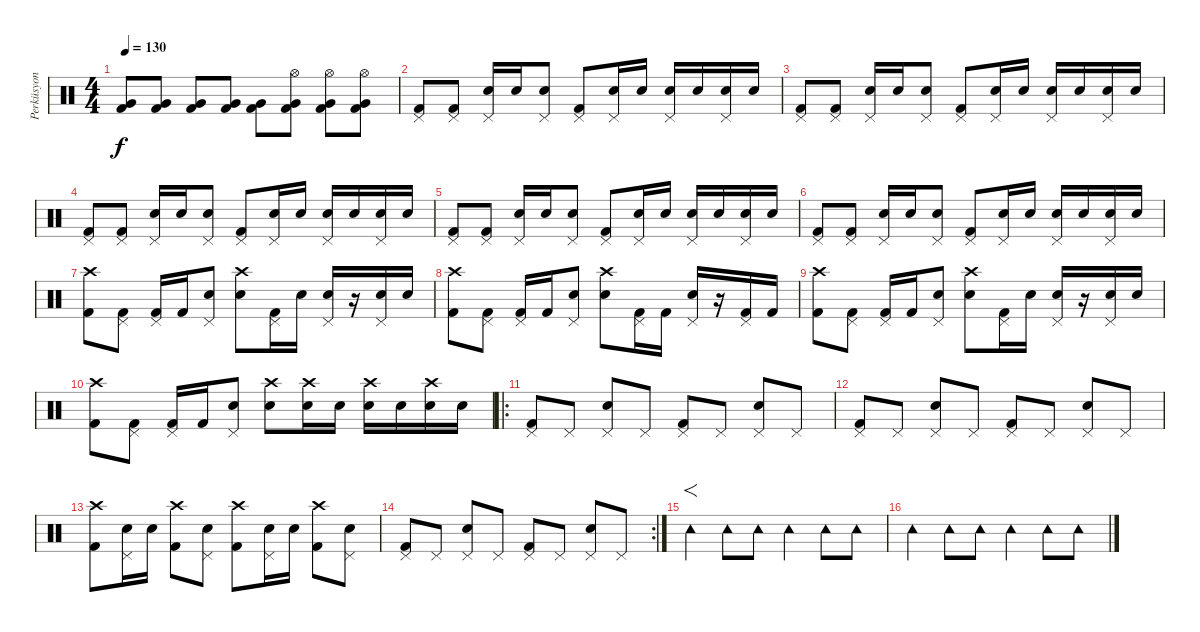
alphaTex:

\track ("Perküsyon" "Perküsyon") {instrument percussion}
\staff {score}
\articulation defaults
\ts (4 4)
\tempo 130
\clef neutral
\ks c
("Kick (hit) 2" "Very Low Tom (hit)").8{dy f} ("Kick (hit) 2" "Very Low Tom (hit)").8 ("Kick (hit) 2" "Very Low Tom (hit)").8 ("Kick (hit) 2" "Very Low Tom (hit)").8 ("Kick (hit) 2" "Very Low Tom (hit)").8 ("Hi-Hat (open)" "Kick (hit) 2" "Very Low Tom (hit)").8 ("Hi-Hat (open)" "Kick (hit) 2" "Very Low Tom (hit)").8 ("Hi-Hat (open)" "Kick (hit) 2" "Very Low Tom (hit)").8 |
("Pedal Hi-Hat (hit)" "Kick (hit) 2").8 ("Pedal Hi-Hat (hit)" "Kick (hit) 2").8 ("Pedal Hi-Hat (hit)" "Electric Snare (hit)").16 "Electric Snare (hit)".16 ("Pedal Hi-Hat (hit)" "Electric Snare (hit)").8 ("Pedal Hi-Hat (hit)" "Kick (hit) 2").8 ("Pedal Hi-Hat (hit)" "Electric Snare (hit)").16 "Electric Snare (hit)".16 ("Pedal Hi-Hat (hit)" "Electric Snare (hit)").16 "Electric Snare (hit)".16 ("Pedal Hi-Hat (hit)" "Electric Snare (hit)").16 "Electric Snare (hit)".16 |
("Pedal Hi-Hat (hit)" "Kick (hit) 2").8 ("Pedal Hi-Hat (hit)" "Kick (hit) 2").8 ("Pedal Hi-Hat (hit)" "Electric Snare (hit)").16 "Electric Snare (hit)".16 ("Pedal Hi-Hat (hit)" "Electric Snare (hit)").8 ("Pedal Hi-Hat (hit)" "Kick (hit) 2").8 ("Pedal Hi-Hat (hit)" "Electric Snare (hit)").16 "Electric Snare (hit)".16 ("Pedal Hi-Hat (hit)" "Electric Snare (hit)").16 "Electric Snare (hit)".16 ("Pedal Hi-Hat (hit)" "Electric Snare (hit)").16 "Electric Snare (hit)".16 |
("Pedal Hi-Hat (hit)" "Kick (hit) 2").8 ("Pedal Hi-Hat (hit)" "Kick (hit) 2").8 ("Pedal Hi-Hat (hit)" "Electric Snare (hit)").16 "Electric Snare (hit)".16 ("Pedal Hi-Hat (hit)" "Electric Snare (hit)").8 ("Pedal Hi-Hat (hit)" "Kick (hit) 2").8 ("Pedal Hi-Hat (hit)" "Electric Snare (hit)").16 "Electric Snare (hit)".16 ("Pedal Hi-Hat (hit)" "Electric Snare (hit)").16 "Electric Snare (hit)".16 ("Pedal Hi-Hat (hit)" "Electric Snare (hit)").16 "Electric Snare (hit)".16 |
("Pedal Hi-Hat (hit)" "Kick (hit) 2").8 ("Pedal Hi-Hat (hit)" "Kick (hit) 2").8 ("Pedal Hi-Hat (hit)" "Electric Snare (hit)").16 "Electric Snare (hit)".16 ("Pedal Hi-Hat (hit)" "Electric Snare (hit)").8 ("Pedal Hi-Hat (hit)" "Kick (hit) 2").8 ("Pedal Hi-Hat (hit)" "Electric Snare (hit)").16 "Electric Snare (hit)".16 ("Pedal Hi-Hat (hit)" "Electric Snare (hit)").16 "Electric Snare (hit)".16 ("Pedal Hi-Hat (hit)" "Electric Snare (hit)").16 "Electric Snare (hit)".16 |
("Pedal Hi-Hat (hit)" "Kick (hit) 2").8 ("Pedal Hi-Hat (hit)" "Kick (hit) 2").8 ("Pedal Hi-Hat (hit)" "Electric Snare (hit)").16 "Electric Snare (hit)".16 ("Pedal Hi-Hat (hit)" "Electric Snare (hit)").8 ("Pedal Hi-Hat (hit)" "Kick (hit) 2").8 ("Pedal Hi-Hat (hit)" "Electric Snare (hit)").16 "Electric Snare (hit)".16 ("Pedal Hi-Hat (hit)" "Electric Snare (hit)").16 "Electric Snare (hit)".16 ("Pedal Hi-Hat (hit)" "Electric Snare (hit)").16 "Electric Snare (hit)".16 |
("Crash high (hit)" "Kick (hit) 2").8 ("Pedal Hi-Hat (hit)" "Kick (hit) 2").8 ("Pedal Hi-Hat (hit)" "Kick (hit) 2").16 "Kick (hit) 2".16 ("Pedal Hi-Hat (hit)" "Electric Snare (hit)").8 ("Crash high (hit)" "Electric Snare (hit)").8 ("Pedal Hi-Hat (hit)" "Kick (hit) 2").16 "Electric Snare (hit)".16 ("Pedal Hi-Hat (hit)" "Electric Snare (hit)").16 r.16 ("Pedal Hi-Hat (hit)" "Electric Snare (hit)").16 "Electric Snare (hit)".16 |
("Crash high (hit)" "Kick (hit) 2").8 ("Pedal Hi-Hat (hit)" "Kick (hit) 2").8 ("Pedal Hi-Hat (hit)" "Kick (hit) 2").16 "Kick (hit) 2".16 ("Pedal Hi-Hat (hit)" "Electric Snare (hit)").8 ("Crash high (hit)" "Electric Snare (hit)").8 ("Pedal Hi-Hat (hit)" "Kick (hit) 2").16 "Kick (hit) 2".16 ("Pedal Hi-Hat (hit)" "Electric Snare (hit)").16 r.16 ("Pedal Hi-Hat (hit)" "Kick (hit) 2").16 "Kick (hit) 2".16 |
("Crash high (hit)" "Kick (hit) 2").8 ("Pedal Hi-Hat (hit)" "Kick (hit) 2").8 ("Pedal Hi-Hat (hit)" "Kick (hit) 2").16 "Kick (hit) 2".16 ("Pedal Hi-Hat (hit)" "Electric Snare (hit)").8 ("Crash high (hit)" "Electric Snare (hit)").8 ("Pedal Hi-Hat (hit)" "Kick (hit) 2").16 "Electric Snare (hit)".16 ("Pedal Hi-Hat (hit)" "Electric Snare (hit)").16 r.16 ("Pedal Hi-Hat (hit)" "Electric Snare (hit)").16 "Electric Snare (hit)".16 |
("Crash high (hit)" "Kick (hit) 2").8 ("Pedal Hi-Hat (hit)" "Kick (hit) 2").8 ("Pedal Hi-Hat (hit)" "Kick (hit) 2").16 "Kick (hit) 2".16 ("Pedal Hi-Hat (hit)" "Electric Snare (hit)").8 ("Crash high (hit)" "Electric Snare (hit)").8 ("Crash high (hit)" "Electric Snare (hit)").16 "Electric Snare (hit)".16 ("Crash high (hit)" "Electric Snare (hit)").16 "Electric Snare (hit)".16 ("Crash high (hit)" "Electric Snare (hit)").16 "Electric Snare (hit)".16 |
\ro
("Pedal Hi-Hat (hit)" "Kick (hit) 2").8 "Pedal Hi-Hat (hit)".8 ("Pedal Hi-Hat (hit)" "Electric Snare (hit)").8 "Pedal Hi-Hat (hit)".8 ("Pedal Hi-Hat (hit)" "Kick (hit) 2").8 "Pedal Hi-Hat (hit)".8 ("Pedal Hi-Hat (hit)" "Electric Snare (hit)").8 "Pedal Hi-Hat (hit)".8 |
("Pedal Hi-Hat (hit)" "Kick (hit) 2").8 "Pedal Hi-Hat (hit)".8 ("Pedal Hi-Hat (hit)" "Electric Snare (hit)").8 "Pedal Hi-Hat (hit)".8 ("Pedal Hi-Hat (hit)" "Kick (hit) 2").8 "Pedal Hi-Hat (hit)".8 ("Pedal Hi-Hat (hit)" "Electric Snare (hit)").8 "Pedal Hi-Hat (hit)".8 |
("Crash high (hit)" "Kick (hit) 2").8 ("Pedal Hi-Hat (hit)" "Electric Snare (hit)").16 "Electric Snare (hit)".16 ("Crash high (hit)" "Kick (hit) 2").8 ("Pedal Hi-Hat (hit)" "Electric Snare (hit)").8 ("Crash high (hit)" "Kick (hit) 2").8 ("Pedal Hi-Hat (hit)" "Electric Snare (hit)").16 "Electric Snare (hit)".16 ("Crash high (hit)" "Kick (hit) 2").8 ("Pedal Hi-Hat (hit)" "Electric Snare (hit)").8 |
\rc 2
("Pedal Hi-Hat (hit)" "Kick (hit) 2").8 "Pedal Hi-Hat (hit)".8 ("Pedal Hi-Hat (hit)" "Electric Snare (hit)").8 "Pedal Hi-Hat (hit)".8 ("Pedal Hi-Hat (hit)" "Kick (hit) 2").8 "Pedal Hi-Hat (hit)".8 ("Pedal Hi-Hat (hit)" "Electric Snare (hit)").8 "Pedal Hi-Hat (hit)".8 |
"Tambourine (hit)".4{f} "Tambourine (hit)".8 "Tambourine (hit)".8 "Tambourine (hit)".4 "Tambourine (hit)".8 "Tambourine (hit)".8 |
"Tambourine (hit)".4 "Tambourine (hit)".8 "Tambourine (hit)".8 "Tambourine (hit)".4 "Tambourine (hit)".8 "Tambourine (hit)".8
